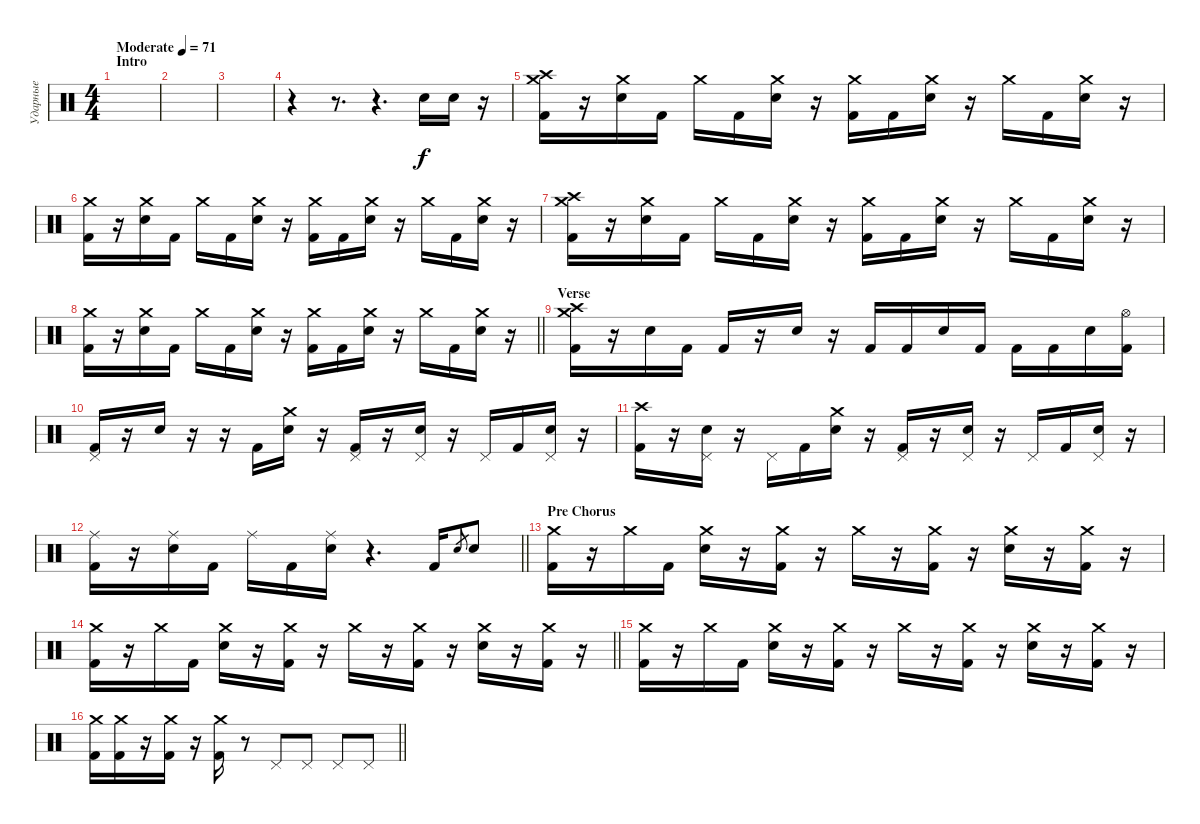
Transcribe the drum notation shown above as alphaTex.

\track ("Ударные" "Ударные") {instrument percussion}
\staff {score}
\articulation defaults
\ts (4 4)
\section ("" "Intro")
\tempo (71 "Moderate")
\clef neutral
\ks c
|
|
|
r.4 r.8{d} r.4{d} "Electric Snare (hit)".16 "Electric Snare (hit)".16 r.16 |
("Crash medium (hit)" "Crash high (hit)" "Kick (hit) 2").16 r.16 ("Crash medium (hit)" "Electric Snare (hit)").16 "Kick (hit) 2".16 "Crash medium (hit)".16 "Kick (hit) 2".16 ("Crash medium (hit)" "Electric Snare (hit)").16 r.16 ("Crash medium (hit)" "Kick (hit) 2").16 "Kick (hit) 2".16 ("Crash medium (hit)" "Electric Snare (hit)").16 r.16 "Crash medium (hit)".16 "Kick (hit) 2".16 ("Crash medium (hit)" "Electric Snare (hit)").16 r.16 |
("Crash medium (hit)" "Kick (hit) 2").16 r.16 ("Crash medium (hit)" "Electric Snare (hit)").16 "Kick (hit) 2".16 "Crash medium (hit)".16 "Kick (hit) 2".16 ("Crash medium (hit)" "Electric Snare (hit)").16 r.16 ("Crash medium (hit)" "Kick (hit) 2").16 "Kick (hit) 2".16 ("Crash medium (hit)" "Electric Snare (hit)").16 r.16 "Crash medium (hit)".16 "Kick (hit) 2".16 ("Crash medium (hit)" "Electric Snare (hit)").16 r.16 |
("Crash medium (hit)" "Crash high (hit)" "Kick (hit) 2").16 r.16 ("Crash medium (hit)" "Electric Snare (hit)").16 "Kick (hit) 2".16 "Crash medium (hit)".16 "Kick (hit) 2".16 ("Crash medium (hit)" "Electric Snare (hit)").16 r.16 ("Crash medium (hit)" "Kick (hit) 2").16 "Kick (hit) 2".16 ("Crash medium (hit)" "Electric Snare (hit)").16 r.16 "Crash medium (hit)".16 "Kick (hit) 2".16 ("Crash medium (hit)" "Electric Snare (hit)").16 r.16 |
\barLineRight lightlight
("Crash medium (hit)" "Kick (hit) 2").16 r.16 ("Crash medium (hit)" "Electric Snare (hit)").16 "Kick (hit) 2".16 "Crash medium (hit)".16 "Kick (hit) 2".16 ("Crash medium (hit)" "Electric Snare (hit)").16 r.16 ("Crash medium (hit)" "Kick (hit) 2").16 "Kick (hit) 2".16 ("Crash medium (hit)" "Electric Snare (hit)").16 r.16 "Crash medium (hit)".16 "Kick (hit) 2".16 ("Crash medium (hit)" "Electric Snare (hit)").16 r.16 |
\section ("" "Verse")
("Crash medium (hit)" "Crash high (hit)" "Kick (hit) 2").16 r.16 "Electric Snare (hit)".16 "Kick (hit) 2".16 "Kick (hit) 2".16 r.16 "Electric Snare (hit)".16 r.16 "Kick (hit) 2".16 "Kick (hit) 2".16 "Electric Snare (hit)".16 "Kick (hit) 2".16 "Kick (hit) 2".16 "Kick (hit) 2".16 "Electric Snare (hit)".16 ("Hi-Hat (open)" "Kick (hit) 2").16 |
("Pedal Hi-Hat (hit)" "Kick (hit) 2").16 r.16 "Electric Snare (hit)".16 r.16 r.16 "Kick (hit) 2".16 ("Crash medium (hit)" "Electric Snare (hit)").16 r.16 ("Pedal Hi-Hat (hit)" "Kick (hit) 2").16 r.16 ("Pedal Hi-Hat (hit)" "Electric Snare (hit)").16 r.16 "Pedal Hi-Hat (hit)".16 "Kick (hit) 2".16 ("Pedal Hi-Hat (hit)" "Electric Snare (hit)").16 r.16 |
("Crash high (hit)" "Kick (hit) 2").16 r.16 ("Pedal Hi-Hat (hit)" "Electric Snare (hit)").16 r.16 "Pedal Hi-Hat (hit)".16 "Kick (hit) 2".16 ("Crash medium (hit)" "Electric Snare (hit)").16 r.16 ("Pedal Hi-Hat (hit)" "Kick (hit) 2").16 r.16 ("Pedal Hi-Hat (hit)" "Electric Snare (hit)").16 r.16 "Pedal Hi-Hat (hit)".16 "Kick (hit) 2".16 ("Pedal Hi-Hat (hit)" "Electric Snare (hit)").16 r.16 |
\barLineRight lightlight
("Ride (middle)" "Kick (hit) 2").16 r.16 ("Ride (middle)" "Electric Snare (hit)").16 "Kick (hit) 2".16 "Ride (middle)".16 "Kick (hit) 2".16 ("Ride (middle)" "Electric Snare (hit)").16 r.4{d} "Kick (hit) 2".16 "Electric Snare (hit)".8{gr} "Electric Snare (hit)".8 |
\section ("" "Pre Chorus")
("Crash medium (hit)" "Kick (hit) 2").16 r.16 "Crash medium (hit)".16 "Kick (hit) 2".16 ("Crash medium (hit)" "Electric Snare (hit)").16 r.16 ("Crash medium (hit)" "Kick (hit) 2").16 r.16 "Crash medium (hit)".16 r.16 ("Crash medium (hit)" "Kick (hit) 2").16 r.16 ("Crash medium (hit)" "Electric Snare (hit)").16 r.16 ("Crash medium (hit)" "Kick (hit) 2").16 r.16 |
\barLineRight lightlight
("Crash medium (hit)" "Kick (hit) 2").16 r.16 "Crash medium (hit)".16 "Kick (hit) 2".16 ("Crash medium (hit)" "Electric Snare (hit)").16 r.16 ("Crash medium (hit)" "Kick (hit) 2").16 r.16 "Crash medium (hit)".16 r.16 ("Crash medium (hit)" "Kick (hit) 2").16 r.16 ("Crash medium (hit)" "Electric Snare (hit)").16 r.16 ("Crash medium (hit)" "Kick (hit) 2").16 r.16 |
("Crash medium (hit)" "Kick (hit) 2").16 r.16 "Crash medium (hit)".16 "Kick (hit) 2".16 ("Crash medium (hit)" "Electric Snare (hit)").16 r.16 ("Crash medium (hit)" "Kick (hit) 2").16 r.16 "Crash medium (hit)".16 r.16 ("Crash medium (hit)" "Kick (hit) 2").16 r.16 ("Crash medium (hit)" "Electric Snare (hit)").16 r.16 ("Crash medium (hit)" "Kick (hit) 2").16 r.16 |
\barLineRight lightlight
("Crash medium (hit)" "Kick (hit) 2").16 ("Crash medium (hit)" "Kick (hit) 2").16 r.16 ("Crash medium (hit)" "Kick (hit) 2").16 r.16 ("Crash medium (hit)" "Kick (hit) 2").16 r.8 "Pedal Hi-Hat (hit)".8 "Pedal Hi-Hat (hit)".8 "Pedal Hi-Hat (hit)".8 "Pedal Hi-Hat (hit)".8
